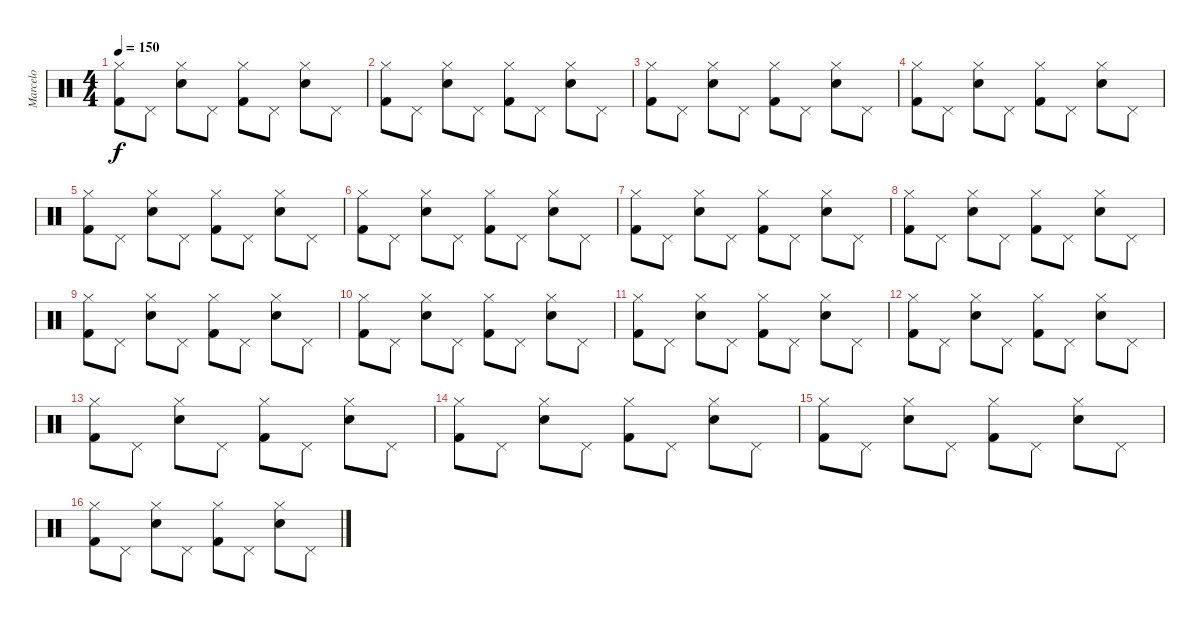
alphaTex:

\track ("Marcelo" "Marcelo") {instrument percussion}
\staff {score}
\articulation defaults
\ts (4 4)
\tempo 150
\clef neutral
\ks c
("Hi-Hat (closed)" "Kick (hit) 2").8{dy f} "Pedal Hi-Hat (hit)".8 ("Hi-Hat (closed)" "Electric Snare (hit)").8 "Pedal Hi-Hat (hit)".8 ("Hi-Hat (closed)" "Kick (hit) 2").8 "Pedal Hi-Hat (hit)".8 ("Hi-Hat (closed)" "Electric Snare (hit)").8 "Pedal Hi-Hat (hit)".8 |
("Hi-Hat (closed)" "Kick (hit) 2").8 "Pedal Hi-Hat (hit)".8 ("Hi-Hat (closed)" "Electric Snare (hit)").8 "Pedal Hi-Hat (hit)".8 ("Hi-Hat (closed)" "Kick (hit) 2").8 "Pedal Hi-Hat (hit)".8 ("Hi-Hat (closed)" "Electric Snare (hit)").8 "Pedal Hi-Hat (hit)".8 |
("Hi-Hat (closed)" "Kick (hit) 2").8 "Pedal Hi-Hat (hit)".8 ("Hi-Hat (closed)" "Electric Snare (hit)").8 "Pedal Hi-Hat (hit)".8 ("Hi-Hat (closed)" "Kick (hit) 2").8 "Pedal Hi-Hat (hit)".8 ("Hi-Hat (closed)" "Electric Snare (hit)").8 "Pedal Hi-Hat (hit)".8 |
("Hi-Hat (closed)" "Kick (hit) 2").8 "Pedal Hi-Hat (hit)".8 ("Hi-Hat (closed)" "Electric Snare (hit)").8 "Pedal Hi-Hat (hit)".8 ("Hi-Hat (closed)" "Kick (hit) 2").8 "Pedal Hi-Hat (hit)".8 ("Hi-Hat (closed)" "Electric Snare (hit)").8 "Pedal Hi-Hat (hit)".8 |
("Hi-Hat (closed)" "Kick (hit) 2").8 "Pedal Hi-Hat (hit)".8 ("Hi-Hat (closed)" "Electric Snare (hit)").8 "Pedal Hi-Hat (hit)".8 ("Hi-Hat (closed)" "Kick (hit) 2").8 "Pedal Hi-Hat (hit)".8 ("Hi-Hat (closed)" "Electric Snare (hit)").8 "Pedal Hi-Hat (hit)".8 |
("Hi-Hat (closed)" "Kick (hit) 2").8 "Pedal Hi-Hat (hit)".8 ("Hi-Hat (closed)" "Electric Snare (hit)").8 "Pedal Hi-Hat (hit)".8 ("Hi-Hat (closed)" "Kick (hit) 2").8 "Pedal Hi-Hat (hit)".8 ("Hi-Hat (closed)" "Electric Snare (hit)").8 "Pedal Hi-Hat (hit)".8 |
("Hi-Hat (closed)" "Kick (hit) 2").8 "Pedal Hi-Hat (hit)".8 ("Hi-Hat (closed)" "Electric Snare (hit)").8 "Pedal Hi-Hat (hit)".8 ("Hi-Hat (closed)" "Kick (hit) 2").8 "Pedal Hi-Hat (hit)".8 ("Hi-Hat (closed)" "Electric Snare (hit)").8 "Pedal Hi-Hat (hit)".8 |
("Hi-Hat (closed)" "Kick (hit) 2").8 "Pedal Hi-Hat (hit)".8 ("Hi-Hat (closed)" "Electric Snare (hit)").8 "Pedal Hi-Hat (hit)".8 ("Hi-Hat (closed)" "Kick (hit) 2").8 "Pedal Hi-Hat (hit)".8 ("Hi-Hat (closed)" "Electric Snare (hit)").8 "Pedal Hi-Hat (hit)".8 |
("Hi-Hat (closed)" "Kick (hit) 2").8 "Pedal Hi-Hat (hit)".8 ("Hi-Hat (closed)" "Electric Snare (hit)").8 "Pedal Hi-Hat (hit)".8 ("Hi-Hat (closed)" "Kick (hit) 2").8 "Pedal Hi-Hat (hit)".8 ("Hi-Hat (closed)" "Electric Snare (hit)").8 "Pedal Hi-Hat (hit)".8 |
("Hi-Hat (closed)" "Kick (hit) 2").8 "Pedal Hi-Hat (hit)".8 ("Hi-Hat (closed)" "Electric Snare (hit)").8 "Pedal Hi-Hat (hit)".8 ("Hi-Hat (closed)" "Kick (hit) 2").8 "Pedal Hi-Hat (hit)".8 ("Hi-Hat (closed)" "Electric Snare (hit)").8 "Pedal Hi-Hat (hit)".8 |
("Hi-Hat (closed)" "Kick (hit) 2").8 "Pedal Hi-Hat (hit)".8 ("Hi-Hat (closed)" "Electric Snare (hit)").8 "Pedal Hi-Hat (hit)".8 ("Hi-Hat (closed)" "Kick (hit) 2").8 "Pedal Hi-Hat (hit)".8 ("Hi-Hat (closed)" "Electric Snare (hit)").8 "Pedal Hi-Hat (hit)".8 |
("Hi-Hat (closed)" "Kick (hit) 2").8 "Pedal Hi-Hat (hit)".8 ("Hi-Hat (closed)" "Electric Snare (hit)").8 "Pedal Hi-Hat (hit)".8 ("Hi-Hat (closed)" "Kick (hit) 2").8 "Pedal Hi-Hat (hit)".8 ("Hi-Hat (closed)" "Electric Snare (hit)").8 "Pedal Hi-Hat (hit)".8 |
("Hi-Hat (closed)" "Kick (hit) 2").8 "Pedal Hi-Hat (hit)".8 ("Hi-Hat (closed)" "Electric Snare (hit)").8 "Pedal Hi-Hat (hit)".8 ("Hi-Hat (closed)" "Kick (hit) 2").8 "Pedal Hi-Hat (hit)".8 ("Hi-Hat (closed)" "Electric Snare (hit)").8 "Pedal Hi-Hat (hit)".8 |
("Hi-Hat (closed)" "Kick (hit) 2").8 "Pedal Hi-Hat (hit)".8 ("Hi-Hat (closed)" "Electric Snare (hit)").8 "Pedal Hi-Hat (hit)".8 ("Hi-Hat (closed)" "Kick (hit) 2").8 "Pedal Hi-Hat (hit)".8 ("Hi-Hat (closed)" "Electric Snare (hit)").8 "Pedal Hi-Hat (hit)".8 |
("Hi-Hat (closed)" "Kick (hit) 2").8 "Pedal Hi-Hat (hit)".8 ("Hi-Hat (closed)" "Electric Snare (hit)").8 "Pedal Hi-Hat (hit)".8 ("Hi-Hat (closed)" "Kick (hit) 2").8 "Pedal Hi-Hat (hit)".8 ("Hi-Hat (closed)" "Electric Snare (hit)").8 "Pedal Hi-Hat (hit)".8 |
("Hi-Hat (closed)" "Kick (hit) 2").8 "Pedal Hi-Hat (hit)".8 ("Hi-Hat (closed)" "Electric Snare (hit)").8 "Pedal Hi-Hat (hit)".8 ("Hi-Hat (closed)" "Kick (hit) 2").8 "Pedal Hi-Hat (hit)".8 ("Hi-Hat (closed)" "Electric Snare (hit)").8 "Pedal Hi-Hat (hit)".8
